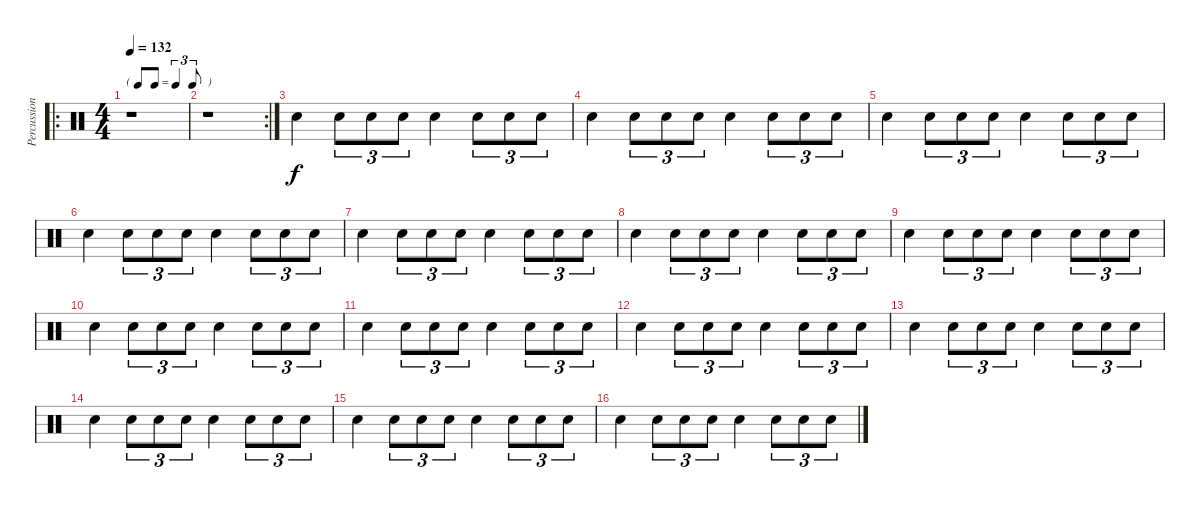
\track ("Percussions" "Percussion") {instrument percussion}
\staff {score}
\articulation defaults
\ro
\ts (4 4)
\tf triplet8th
\tempo 132
\clef neutral
\ks c
r.1{dy f} |
\rc 2
r.1 |
"Snare (hit) 2".4 "Snare (hit) 2".8{tu (3 2)} "Snare (hit) 2".8{tu (3 2)} "Snare (hit) 2".8{tu (3 2)} "Snare (hit) 2".4 "Snare (hit) 2".8{tu (3 2)} "Snare (hit) 2".8{tu (3 2)} "Snare (hit) 2".8{tu (3 2)} |
"Snare (hit) 2".4 "Snare (hit) 2".8{tu (3 2)} "Snare (hit) 2".8{tu (3 2)} "Snare (hit) 2".8{tu (3 2)} "Snare (hit) 2".4 "Snare (hit) 2".8{tu (3 2)} "Snare (hit) 2".8{tu (3 2)} "Snare (hit) 2".8{tu (3 2)} |
"Snare (hit) 2".4 "Snare (hit) 2".8{tu (3 2)} "Snare (hit) 2".8{tu (3 2)} "Snare (hit) 2".8{tu (3 2)} "Snare (hit) 2".4 "Snare (hit) 2".8{tu (3 2)} "Snare (hit) 2".8{tu (3 2)} "Snare (hit) 2".8{tu (3 2)} |
"Snare (hit) 2".4 "Snare (hit) 2".8{tu (3 2)} "Snare (hit) 2".8{tu (3 2)} "Snare (hit) 2".8{tu (3 2)} "Snare (hit) 2".4 "Snare (hit) 2".8{tu (3 2)} "Snare (hit) 2".8{tu (3 2)} "Snare (hit) 2".8{tu (3 2)} |
"Snare (hit) 2".4 "Snare (hit) 2".8{tu (3 2)} "Snare (hit) 2".8{tu (3 2)} "Snare (hit) 2".8{tu (3 2)} "Snare (hit) 2".4 "Snare (hit) 2".8{tu (3 2)} "Snare (hit) 2".8{tu (3 2)} "Snare (hit) 2".8{tu (3 2)} |
"Snare (hit) 2".4 "Snare (hit) 2".8{tu (3 2)} "Snare (hit) 2".8{tu (3 2)} "Snare (hit) 2".8{tu (3 2)} "Snare (hit) 2".4 "Snare (hit) 2".8{tu (3 2)} "Snare (hit) 2".8{tu (3 2)} "Snare (hit) 2".8{tu (3 2)} |
"Snare (hit) 2".4 "Snare (hit) 2".8{tu (3 2)} "Snare (hit) 2".8{tu (3 2)} "Snare (hit) 2".8{tu (3 2)} "Snare (hit) 2".4 "Snare (hit) 2".8{tu (3 2)} "Snare (hit) 2".8{tu (3 2)} "Snare (hit) 2".8{tu (3 2)} |
"Snare (hit) 2".4 "Snare (hit) 2".8{tu (3 2)} "Snare (hit) 2".8{tu (3 2)} "Snare (hit) 2".8{tu (3 2)} "Snare (hit) 2".4 "Snare (hit) 2".8{tu (3 2)} "Snare (hit) 2".8{tu (3 2)} "Snare (hit) 2".8{tu (3 2)} |
"Snare (hit) 2".4 "Snare (hit) 2".8{tu (3 2)} "Snare (hit) 2".8{tu (3 2)} "Snare (hit) 2".8{tu (3 2)} "Snare (hit) 2".4 "Snare (hit) 2".8{tu (3 2)} "Snare (hit) 2".8{tu (3 2)} "Snare (hit) 2".8{tu (3 2)} |
"Snare (hit) 2".4 "Snare (hit) 2".8{tu (3 2)} "Snare (hit) 2".8{tu (3 2)} "Snare (hit) 2".8{tu (3 2)} "Snare (hit) 2".4 "Snare (hit) 2".8{tu (3 2)} "Snare (hit) 2".8{tu (3 2)} "Snare (hit) 2".8{tu (3 2)} |
"Snare (hit) 2".4 "Snare (hit) 2".8{tu (3 2)} "Snare (hit) 2".8{tu (3 2)} "Snare (hit) 2".8{tu (3 2)} "Snare (hit) 2".4 "Snare (hit) 2".8{tu (3 2)} "Snare (hit) 2".8{tu (3 2)} "Snare (hit) 2".8{tu (3 2)} |
"Snare (hit) 2".4 "Snare (hit) 2".8{tu (3 2)} "Snare (hit) 2".8{tu (3 2)} "Snare (hit) 2".8{tu (3 2)} "Snare (hit) 2".4 "Snare (hit) 2".8{tu (3 2)} "Snare (hit) 2".8{tu (3 2)} "Snare (hit) 2".8{tu (3 2)} |
"Snare (hit) 2".4 "Snare (hit) 2".8{tu (3 2)} "Snare (hit) 2".8{tu (3 2)} "Snare (hit) 2".8{tu (3 2)} "Snare (hit) 2".4 "Snare (hit) 2".8{tu (3 2)} "Snare (hit) 2".8{tu (3 2)} "Snare (hit) 2".8{tu (3 2)} |
"Snare (hit) 2".4 "Snare (hit) 2".8{tu (3 2)} "Snare (hit) 2".8{tu (3 2)} "Snare (hit) 2".8{tu (3 2)} "Snare (hit) 2".4 "Snare (hit) 2".8{tu (3 2)} "Snare (hit) 2".8{tu (3 2)} "Snare (hit) 2".8{tu (3 2)}
